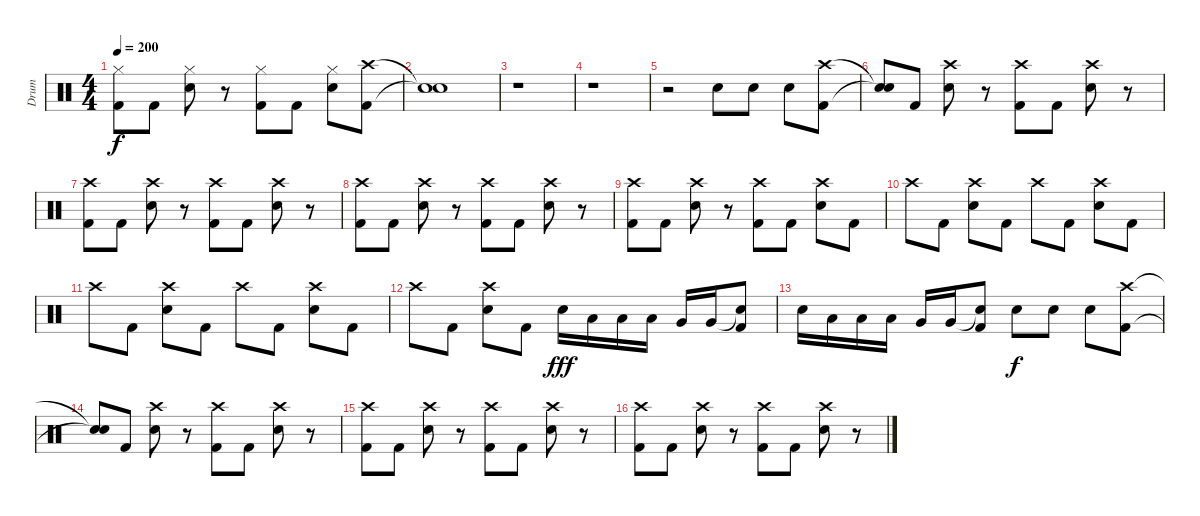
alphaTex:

\track ("Drum" "Drum") {instrument percussion}
\staff {score}
\articulation defaults
\ts (4 4)
\tempo 200
\clef neutral
\ks c
("Hi-Hat (closed)" "Kick (hit) 2").8{dy f} "Kick (hit) 2".8 ("Hi-Hat (closed)" "Electric Snare (hit)").8 r.8 ("Hi-Hat (closed)" "Kick (hit) 2").8 "Kick (hit) 2".8 ("Hi-Hat (closed)" "Electric Snare (hit)").8 ("Crash high (hit)" "Kick (hit) 2").8 |
("Snare (hit)"{t} "Snare (hit)"{t}).1 |
r.1 |
r.1 |
r.2 "Electric Snare (hit)".8 "Electric Snare (hit)".8 "Electric Snare (hit)".8 ("Crash high (hit)" "Kick (hit) 2").8 |
("Snare (hit)"{t} "Snare (hit)"{t}).8 "Kick (hit) 2".8 ("Crash high (hit)" "Electric Snare (hit)").8 r.8 ("Crash high (hit)" "Kick (hit) 2").8 "Kick (hit) 2".8 ("Crash high (hit)" "Electric Snare (hit)").8 r.8 |
("Crash high (hit)" "Kick (hit) 2").8 "Kick (hit) 2".8 ("Crash high (hit)" "Electric Snare (hit)").8 r.8 ("Crash high (hit)" "Kick (hit) 2").8 "Kick (hit) 2".8 ("Crash high (hit)" "Electric Snare (hit)").8 r.8 |
("Crash high (hit)" "Kick (hit) 2").8 "Kick (hit) 2".8 ("Crash high (hit)" "Electric Snare (hit)").8 r.8 ("Crash high (hit)" "Kick (hit) 2").8 "Kick (hit) 2".8 ("Crash high (hit)" "Electric Snare (hit)").8 r.8 |
("Crash high (hit)" "Kick (hit) 2").8 "Kick (hit) 2".8 ("Crash high (hit)" "Electric Snare (hit)").8 r.8 ("Crash high (hit)" "Kick (hit) 2").8 "Kick (hit) 2".8 ("Crash high (hit)" "Electric Snare (hit)").8 "Kick (hit) 2".8 |
"Crash high (hit)".8 "Kick (hit) 2".8 ("Crash high (hit)" "Electric Snare (hit)").8 "Kick (hit) 2".8 "Crash high (hit)".8 "Kick (hit) 2".8 ("Crash high (hit)" "Electric Snare (hit)").8 "Kick (hit) 2".8 |
"Crash high (hit)".8 "Kick (hit) 2".8 ("Crash high (hit)" "Electric Snare (hit)").8 "Kick (hit) 2".8 "Crash high (hit)".8 "Kick (hit) 2".8 ("Crash high (hit)" "Electric Snare (hit)").8 "Kick (hit) 2".8 |
"Crash high (hit)".8 "Kick (hit) 2".8 ("Crash high (hit)" "Electric Snare (hit)").8 "Kick (hit) 2".8 "Electric Snare (hit)".16{dy fff} "Low Tom (hit)".16 "Low Tom (hit)".16 "Low Tom (hit)".16 "Very Low Tom (hit)".16 "Very Low Tom (hit)".16 ("Snare (hit)"{t} "Kick (hit) 2").8 |
"Electric Snare (hit)".16 "Low Tom (hit)".16 "Low Tom (hit)".16 "Low Tom (hit)".16 "Very Low Tom (hit)".16 "Very Low Tom (hit)".16 ("Snare (hit)"{t} "Kick (hit) 2").8 "Electric Snare (hit)".8{dy f} "Electric Snare (hit)".8 "Electric Snare (hit)".8 ("Crash high (hit)" "Kick (hit) 2").8 |
("Snare (hit)"{t} "Snare (hit)"{t}).8 "Kick (hit) 2".8 ("Crash high (hit)" "Electric Snare (hit)").8 r.8 ("Crash high (hit)" "Kick (hit) 2").8 "Kick (hit) 2".8 ("Crash high (hit)" "Electric Snare (hit)").8 r.8 |
("Crash high (hit)" "Kick (hit) 2").8 "Kick (hit) 2".8 ("Crash high (hit)" "Electric Snare (hit)").8 r.8 ("Crash high (hit)" "Kick (hit) 2").8 "Kick (hit) 2".8 ("Crash high (hit)" "Electric Snare (hit)").8 r.8 |
("Crash high (hit)" "Kick (hit) 2").8 "Kick (hit) 2".8 ("Crash high (hit)" "Electric Snare (hit)").8 r.8 ("Crash high (hit)" "Kick (hit) 2").8 "Kick (hit) 2".8 ("Crash high (hit)" "Electric Snare (hit)").8 r.8
